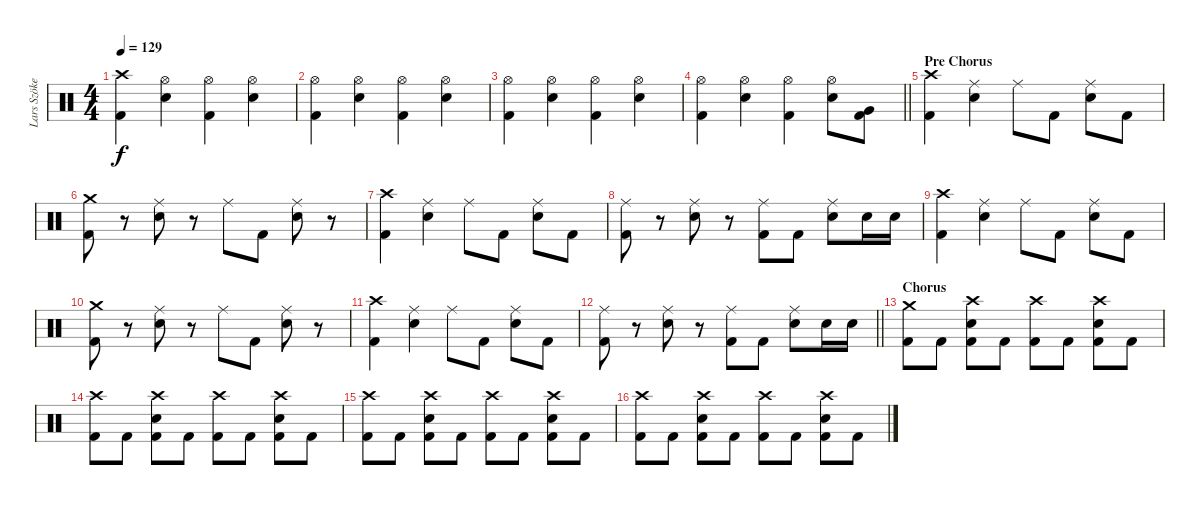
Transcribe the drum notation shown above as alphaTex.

\track ("Lars Szöke" "Lars Szöke") {instrument percussion}
\staff {score}
\articulation defaults
\ts (4 4)
\tempo 129
\clef neutral
\ks c
("Crash high (hit)" "Kick (hit) 2").4{dy f} ("Hi-Hat (open)" "Snare (hit) 2").4 ("Hi-Hat (open)" "Kick (hit) 2").4 ("Hi-Hat (open)" "Snare (hit) 2").4 |
("Hi-Hat (open)" "Kick (hit) 2").4 ("Hi-Hat (open)" "Snare (hit) 2").4 ("Hi-Hat (open)" "Kick (hit) 2").4 ("Hi-Hat (open)" "Snare (hit) 2").4 |
("Hi-Hat (open)" "Kick (hit) 2").4 ("Hi-Hat (open)" "Snare (hit) 2").4 ("Hi-Hat (open)" "Kick (hit) 2").4 ("Hi-Hat (open)" "Snare (hit) 2").4 |
\barLineRight lightlight
("Hi-Hat (open)" "Kick (hit) 2").4 ("Hi-Hat (open)" "Snare (hit) 2").4 ("Hi-Hat (open)" "Kick (hit) 2").4 ("Hi-Hat (open)" "Snare (hit) 2").8 ("Very Low Tom (hit)" "Kick (hit) 2").8 |
\section ("" "Pre Chorus")
("Crash high (hit)" "Kick (hit) 2").4 ("Ride (middle)" "Snare (hit) 2").4 "Ride (middle)".8 "Kick (hit) 2".8 ("Ride (middle)" "Snare (hit) 2").8 "Kick (hit) 2".8 |
("Crash medium (hit)" "Kick (hit) 2").8 r.8 ("Ride (middle)" "Snare (hit) 2").8 r.8 "Ride (middle)".8 "Kick (hit) 2".8 ("Ride (middle)" "Snare (hit) 2").8 r.8 |
("Crash high (hit)" "Kick (hit) 2").4 ("Ride (middle)" "Snare (hit) 2").4 "Ride (middle)".8 "Kick (hit) 2".8 ("Ride (middle)" "Snare (hit) 2").8 "Kick (hit) 2".8 |
("Ride (middle)" "Kick (hit) 2").8 r.8 ("Ride (middle)" "Snare (hit) 2").8 r.8 ("Ride (middle)" "Kick (hit) 2").8 "Kick (hit) 2".8 ("Ride (middle)" "Snare (hit) 2").8 "Snare (hit) 2".16 "Snare (hit) 2".16 |
("Crash high (hit)" "Kick (hit) 2").4 ("Ride (middle)" "Snare (hit) 2").4 "Ride (middle)".8 "Kick (hit) 2".8 ("Ride (middle)" "Snare (hit) 2").8 "Kick (hit) 2".8 |
("Crash medium (hit)" "Kick (hit) 2").8 r.8 ("Ride (middle)" "Snare (hit) 2").8 r.8 "Ride (middle)".8 "Kick (hit) 2".8 ("Ride (middle)" "Snare (hit) 2").8 r.8 |
("Crash high (hit)" "Kick (hit) 2").4 ("Ride (middle)" "Snare (hit) 2").4 "Ride (middle)".8 "Kick (hit) 2".8 ("Ride (middle)" "Snare (hit) 2").8 "Kick (hit) 2".8 |
\barLineRight lightlight
("Ride (middle)" "Kick (hit) 2").8 r.8 ("Ride (middle)" "Snare (hit) 2").8 r.8 ("Ride (middle)" "Kick (hit) 2").8 "Kick (hit) 2".8 ("Ride (middle)" "Snare (hit) 2").8 "Snare (hit) 2".16 "Snare (hit) 2".16 |
\section ("" "Chorus")
("Crash medium (hit)" "Kick (hit) 2").8 "Kick (hit) 2".8 ("Crash high (hit)" "Snare (hit) 2" "Kick (hit) 2").8 "Kick (hit) 2".8 ("Crash high (hit)" "Kick (hit) 2").8 "Kick (hit) 2".8 ("Crash high (hit)" "Snare (hit) 2" "Kick (hit) 2").8 "Kick (hit) 2".8 |
("Crash high (hit)" "Kick (hit) 2").8 "Kick (hit) 2".8 ("Crash high (hit)" "Snare (hit) 2" "Kick (hit) 2").8 "Kick (hit) 2".8 ("Crash high (hit)" "Kick (hit) 2").8 "Kick (hit) 2".8 ("Crash high (hit)" "Snare (hit) 2" "Kick (hit) 2").8 "Kick (hit) 2".8 |
("Crash high (hit)" "Kick (hit) 2").8 "Kick (hit) 2".8 ("Crash high (hit)" "Snare (hit) 2" "Kick (hit) 2").8 "Kick (hit) 2".8 ("Crash high (hit)" "Kick (hit) 2").8 "Kick (hit) 2".8 ("Crash high (hit)" "Snare (hit) 2" "Kick (hit) 2").8 "Kick (hit) 2".8 |
("Crash high (hit)" "Kick (hit) 2").8 "Kick (hit) 2".8 ("Crash high (hit)" "Snare (hit) 2" "Kick (hit) 2").8 "Kick (hit) 2".8 ("Crash high (hit)" "Kick (hit) 2").8 "Kick (hit) 2".8 ("Crash high (hit)" "Snare (hit) 2" "Kick (hit) 2").8 "Kick (hit) 2".8
